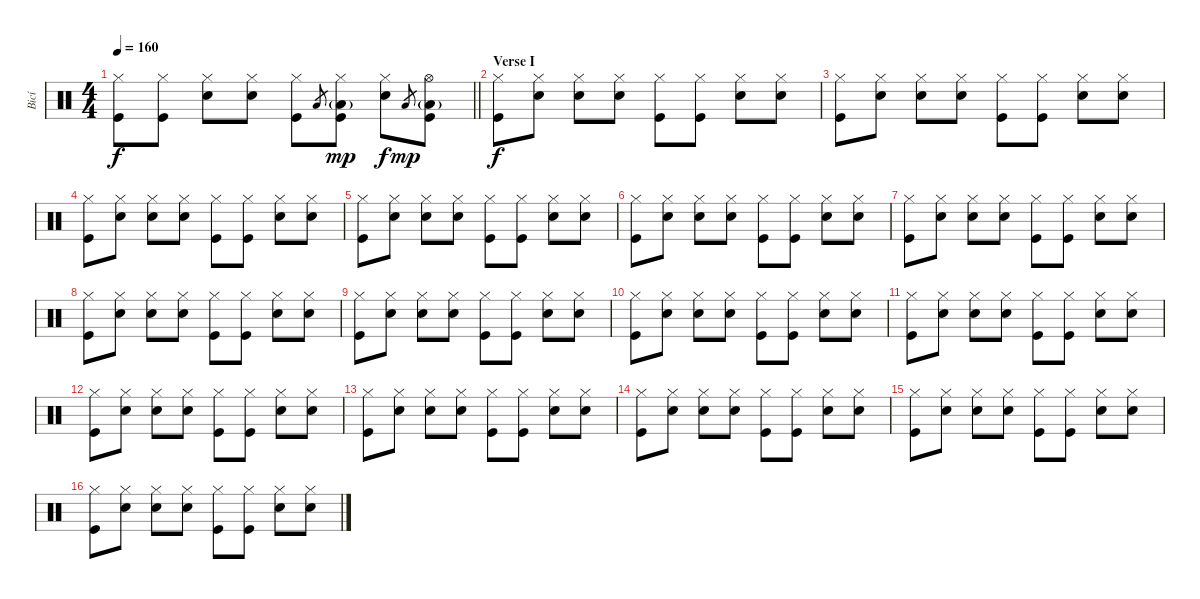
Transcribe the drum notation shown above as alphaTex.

\track ("Bicí" "Bicí") {instrument percussion}
\staff {score}
\articulation defaults
\ts (4 4)
\tempo 160
\clef neutral
\barLineRight lightlight
\ks c
("Hi-Hat (closed)" "Kick (hit)").8{dy f} ("Hi-Hat (closed)" "Kick (hit)").8 ("Hi-Hat (closed)" "Electric Snare (hit)").8 ("Hi-Hat (closed)" "Snare (hit)").8 ("Hi-Hat (closed)" "Kick (hit)").8 "Low Tom (hit)".8{gr} ("Hi-Hat (closed)" "Low Tom (hit)"{g} "Kick (hit)").8{dy mp} ("Hi-Hat (closed)" "Electric Snare (hit)").8{dy f} "Low Tom (hit)".8{gr dy mp} ("Hi-Hat (open)" "Low Tom (hit)"{g} "Kick (hit)").8 |
\section ("" "Verse I")
("Hi-Hat (closed)" "Kick (hit)").8{dy f} ("Hi-Hat (closed)" "Snare (hit)").8 ("Hi-Hat (closed)" "Electric Snare (hit)").8 ("Hi-Hat (closed)" "Snare (hit)").8 ("Hi-Hat (closed)" "Kick (hit)").8 ("Hi-Hat (closed)" "Kick (hit)").8 ("Hi-Hat (closed)" "Electric Snare (hit)").8 ("Hi-Hat (closed)" "Snare (hit)").8 |
("Hi-Hat (closed)" "Kick (hit)").8 ("Hi-Hat (closed)" "Snare (hit)").8 ("Hi-Hat (closed)" "Electric Snare (hit)").8 ("Hi-Hat (closed)" "Snare (hit)").8 ("Hi-Hat (closed)" "Kick (hit)").8 ("Hi-Hat (closed)" "Kick (hit)").8 ("Hi-Hat (closed)" "Electric Snare (hit)").8 ("Hi-Hat (closed)" "Snare (hit)").8 |
("Hi-Hat (closed)" "Kick (hit)").8 ("Hi-Hat (closed)" "Snare (hit)").8 ("Hi-Hat (closed)" "Electric Snare (hit)").8 ("Hi-Hat (closed)" "Snare (hit)").8 ("Hi-Hat (closed)" "Kick (hit)").8 ("Hi-Hat (closed)" "Kick (hit)").8 ("Hi-Hat (closed)" "Electric Snare (hit)").8 ("Hi-Hat (closed)" "Snare (hit)").8 |
("Hi-Hat (closed)" "Kick (hit)").8 ("Hi-Hat (closed)" "Snare (hit)").8 ("Hi-Hat (closed)" "Electric Snare (hit)").8 ("Hi-Hat (closed)" "Snare (hit)").8 ("Hi-Hat (closed)" "Kick (hit)").8 ("Hi-Hat (closed)" "Kick (hit)").8 ("Hi-Hat (closed)" "Electric Snare (hit)").8 ("Hi-Hat (closed)" "Snare (hit)").8 |
("Hi-Hat (closed)" "Kick (hit)").8 ("Hi-Hat (closed)" "Snare (hit)").8 ("Hi-Hat (closed)" "Electric Snare (hit)").8 ("Hi-Hat (closed)" "Snare (hit)").8 ("Hi-Hat (closed)" "Kick (hit)").8 ("Hi-Hat (closed)" "Kick (hit)").8 ("Hi-Hat (closed)" "Electric Snare (hit)").8 ("Hi-Hat (closed)" "Snare (hit)").8 |
("Hi-Hat (closed)" "Kick (hit)").8 ("Hi-Hat (closed)" "Snare (hit)").8 ("Hi-Hat (closed)" "Electric Snare (hit)").8 ("Hi-Hat (closed)" "Snare (hit)").8 ("Hi-Hat (closed)" "Kick (hit)").8 ("Hi-Hat (closed)" "Kick (hit)").8 ("Hi-Hat (closed)" "Electric Snare (hit)").8 ("Hi-Hat (closed)" "Snare (hit)").8 |
("Hi-Hat (closed)" "Kick (hit)").8 ("Hi-Hat (closed)" "Snare (hit)").8 ("Hi-Hat (closed)" "Electric Snare (hit)").8 ("Hi-Hat (closed)" "Snare (hit)").8 ("Hi-Hat (closed)" "Kick (hit)").8 ("Hi-Hat (closed)" "Kick (hit)").8 ("Hi-Hat (closed)" "Electric Snare (hit)").8 ("Hi-Hat (closed)" "Snare (hit)").8 |
("Hi-Hat (closed)" "Kick (hit)").8 ("Hi-Hat (closed)" "Snare (hit)").8 ("Hi-Hat (closed)" "Electric Snare (hit)").8 ("Hi-Hat (closed)" "Snare (hit)").8 ("Hi-Hat (closed)" "Kick (hit)").8 ("Hi-Hat (closed)" "Kick (hit)").8 ("Hi-Hat (closed)" "Electric Snare (hit)").8 ("Hi-Hat (closed)" "Snare (hit)").8 |
("Hi-Hat (closed)" "Kick (hit)").8 ("Hi-Hat (closed)" "Snare (hit)").8 ("Hi-Hat (closed)" "Electric Snare (hit)").8 ("Hi-Hat (closed)" "Snare (hit)").8 ("Hi-Hat (closed)" "Kick (hit)").8 ("Hi-Hat (closed)" "Kick (hit)").8 ("Hi-Hat (closed)" "Electric Snare (hit)").8 ("Hi-Hat (closed)" "Snare (hit)").8 |
("Hi-Hat (closed)" "Kick (hit)").8 ("Hi-Hat (closed)" "Snare (hit)").8 ("Hi-Hat (closed)" "Electric Snare (hit)").8 ("Hi-Hat (closed)" "Snare (hit)").8 ("Hi-Hat (closed)" "Kick (hit)").8 ("Hi-Hat (closed)" "Kick (hit)").8 ("Hi-Hat (closed)" "Electric Snare (hit)").8 ("Hi-Hat (closed)" "Snare (hit)").8 |
("Hi-Hat (closed)" "Kick (hit)").8 ("Hi-Hat (closed)" "Snare (hit)").8 ("Hi-Hat (closed)" "Electric Snare (hit)").8 ("Hi-Hat (closed)" "Snare (hit)").8 ("Hi-Hat (closed)" "Kick (hit)").8 ("Hi-Hat (closed)" "Kick (hit)").8 ("Hi-Hat (closed)" "Electric Snare (hit)").8 ("Hi-Hat (closed)" "Snare (hit)").8 |
("Hi-Hat (closed)" "Kick (hit)").8 ("Hi-Hat (closed)" "Snare (hit)").8 ("Hi-Hat (closed)" "Electric Snare (hit)").8 ("Hi-Hat (closed)" "Snare (hit)").8 ("Hi-Hat (closed)" "Kick (hit)").8 ("Hi-Hat (closed)" "Kick (hit)").8 ("Hi-Hat (closed)" "Electric Snare (hit)").8 ("Hi-Hat (closed)" "Snare (hit)").8 |
("Hi-Hat (closed)" "Kick (hit)").8 ("Hi-Hat (closed)" "Snare (hit)").8 ("Hi-Hat (closed)" "Electric Snare (hit)").8 ("Hi-Hat (closed)" "Snare (hit)").8 ("Hi-Hat (closed)" "Kick (hit)").8 ("Hi-Hat (closed)" "Kick (hit)").8 ("Hi-Hat (closed)" "Electric Snare (hit)").8 ("Hi-Hat (closed)" "Snare (hit)").8 |
("Hi-Hat (closed)" "Kick (hit)").8 ("Hi-Hat (closed)" "Snare (hit)").8 ("Hi-Hat (closed)" "Electric Snare (hit)").8 ("Hi-Hat (closed)" "Snare (hit)").8 ("Hi-Hat (closed)" "Kick (hit)").8 ("Hi-Hat (closed)" "Kick (hit)").8 ("Hi-Hat (closed)" "Electric Snare (hit)").8 ("Hi-Hat (closed)" "Snare (hit)").8 |
("Hi-Hat (closed)" "Kick (hit)").8 ("Hi-Hat (closed)" "Snare (hit)").8 ("Hi-Hat (closed)" "Electric Snare (hit)").8 ("Hi-Hat (closed)" "Snare (hit)").8 ("Hi-Hat (closed)" "Kick (hit)").8 ("Hi-Hat (closed)" "Kick (hit)").8 ("Hi-Hat (closed)" "Electric Snare (hit)").8 ("Hi-Hat (closed)" "Snare (hit)").8
